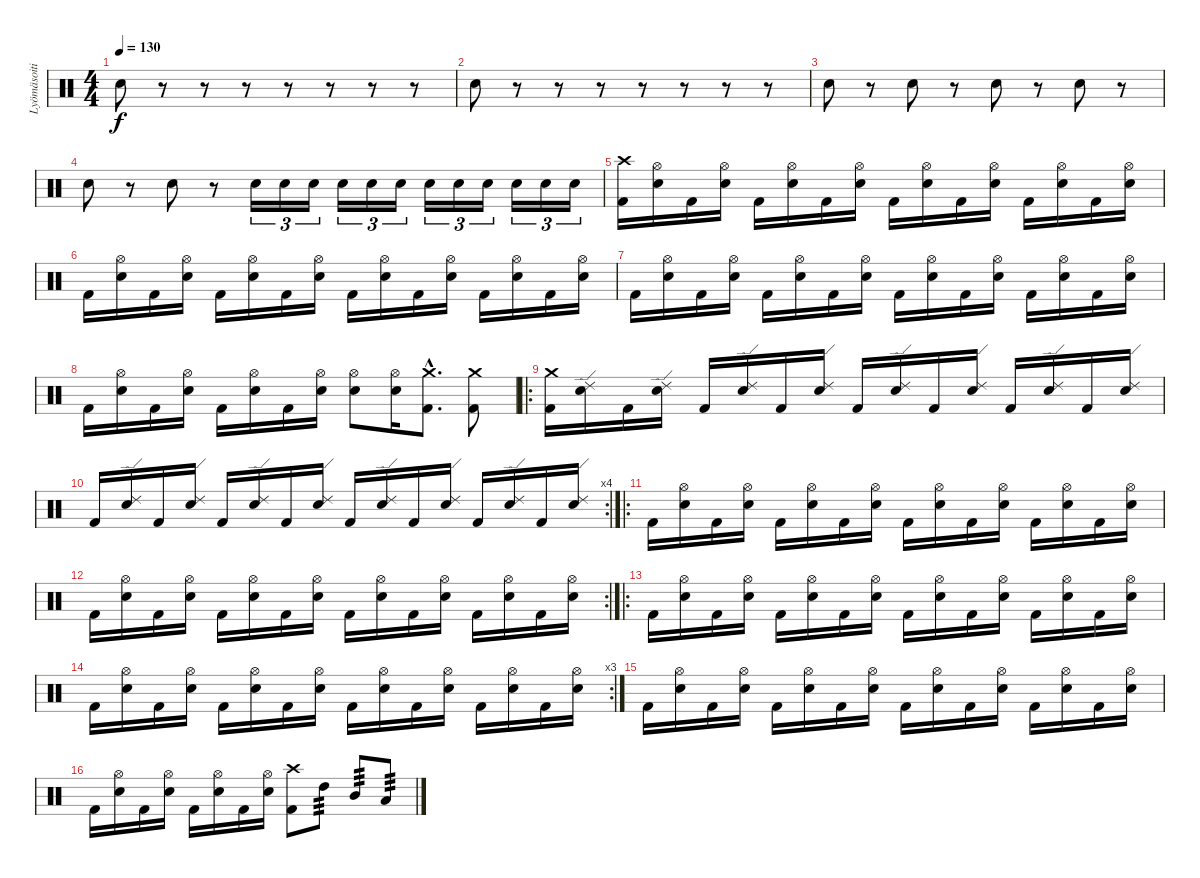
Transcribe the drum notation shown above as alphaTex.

\track ("Lyömäsoitin" "Lyömäsoiti") {instrument percussion}
\staff {score}
\articulation defaults
\ts (4 4)
\tempo 130
\clef neutral
\ks c "Snare (hit) 2".8{dy f}
r.8 r.8 r.8 r.8 r.8 r.8 r.8 |
"Snare (hit) 2".8 r.8 r.8 r.8 r.8 r.8 r.8 r.8 |
"Snare (hit) 2".8 r.8 "Snare (hit) 2".8 r.8 "Snare (hit) 2".8 r.8 "Snare (hit) 2".8 r.8 |
"Snare (hit) 2".8 r.8 "Snare (hit) 2".8 r.8 "Snare (hit) 2".16{tu (3 2)} "Snare (hit) 2".16{tu (3 2)} "Snare (hit) 2".16{tu (3 2)} "Snare (hit) 2".16{tu (3 2)} "Snare (hit) 2".16{tu (3 2)} "Snare (hit) 2".16{tu (3 2)} "Snare (hit) 2".16{tu (3 2)} "Snare (hit) 2".16{tu (3 2)} "Snare (hit) 2".16{tu (3 2)} "Snare (hit) 2".16{tu (3 2)} "Snare (hit) 2".16{tu (3 2)} "Snare (hit) 2".16{tu (3 2)} |
("Crash high (hit)" "Kick (hit) 2").16 ("Hi-Hat (open)" "Snare (hit) 2").16 "Kick (hit) 2".16 ("Hi-Hat (open)" "Snare (hit) 2").16 "Kick (hit) 2".16 ("Hi-Hat (open)" "Snare (hit) 2").16 "Kick (hit) 2".16 ("Hi-Hat (open)" "Snare (hit) 2").16 "Kick (hit) 2".16 ("Hi-Hat (open)" "Snare (hit) 2").16 "Kick (hit) 2".16 ("Hi-Hat (open)" "Snare (hit) 2").16 "Kick (hit) 2".16 ("Hi-Hat (open)" "Snare (hit) 2").16 "Kick (hit) 2".16 ("Hi-Hat (open)" "Snare (hit) 2").16 |
"Kick (hit) 2".16 ("Hi-Hat (open)" "Snare (hit) 2").16 "Kick (hit) 2".16 ("Hi-Hat (open)" "Snare (hit) 2").16 "Kick (hit) 2".16 ("Hi-Hat (open)" "Snare (hit) 2").16 "Kick (hit) 2".16 ("Hi-Hat (open)" "Snare (hit) 2").16 "Kick (hit) 2".16 ("Hi-Hat (open)" "Snare (hit) 2").16 "Kick (hit) 2".16 ("Hi-Hat (open)" "Snare (hit) 2").16 "Kick (hit) 2".16 ("Hi-Hat (open)" "Snare (hit) 2").16 "Kick (hit) 2".16 ("Hi-Hat (open)" "Snare (hit) 2").16 |
"Kick (hit) 2".16 ("Hi-Hat (open)" "Snare (hit) 2").16 "Kick (hit) 2".16 ("Hi-Hat (open)" "Snare (hit) 2").16 "Kick (hit) 2".16 ("Hi-Hat (open)" "Snare (hit) 2").16 "Kick (hit) 2".16 ("Hi-Hat (open)" "Snare (hit) 2").16 "Kick (hit) 2".16 ("Hi-Hat (open)" "Snare (hit) 2").16 "Kick (hit) 2".16 ("Hi-Hat (open)" "Snare (hit) 2").16 "Kick (hit) 2".16 ("Hi-Hat (open)" "Snare (hit) 2").16 "Kick (hit) 2".16 ("Hi-Hat (open)" "Snare (hit) 2").16 |
"Kick (hit) 2".16 ("Hi-Hat (open)" "Snare (hit) 2").16 "Kick (hit) 2".16 ("Hi-Hat (open)" "Snare (hit) 2").16 "Kick (hit) 2".16 ("Hi-Hat (open)" "Snare (hit) 2").16 "Kick (hit) 2".16 ("Hi-Hat (open)" "Snare (hit) 2").16 ("Hi-Hat (open)" "Snare (hit) 2").8 ("Hi-Hat (open)" "Snare (hit) 2").16 ("Crash medium (hit)"{hac} "Kick (hit) 2"{hac}).8{d} ("Crash medium (hit)" "Kick (hit) 2").8 |
\ro
("Crash medium (hit)" "Kick (hit) 2").16 ("Ride (edge) 2" "Snare (hit) 2").16 "Kick (hit) 2".16 ("Ride (edge) 2" "Snare (hit) 2").16 "Kick (hit) 2".16 ("Ride (edge) 2" "Snare (hit) 2").16 "Kick (hit) 2".16 ("Ride (edge) 2" "Snare (hit) 2").16 "Kick (hit) 2".16 ("Ride (edge) 2" "Snare (hit) 2").16 "Kick (hit) 2".16 ("Ride (edge) 2" "Snare (hit) 2").16 "Kick (hit) 2".16 ("Ride (edge) 2" "Snare (hit) 2").16 "Kick (hit) 2".16 ("Ride (edge) 2" "Snare (hit) 2").16 |
\rc 4 "Kick (hit) 2".16
("Ride (edge) 2" "Snare (hit) 2").16 "Kick (hit) 2".16 ("Ride (edge) 2" "Snare (hit) 2").16 "Kick (hit) 2".16 ("Ride (edge) 2" "Snare (hit) 2").16 "Kick (hit) 2".16 ("Ride (edge) 2" "Snare (hit) 2").16 "Kick (hit) 2".16 ("Ride (edge) 2" "Snare (hit) 2").16 "Kick (hit) 2".16 ("Ride (edge) 2" "Snare (hit) 2").16 "Kick (hit) 2".16 ("Ride (edge) 2" "Snare (hit) 2").16 "Kick (hit) 2".16 ("Ride (edge) 2" "Snare (hit) 2").16 |
\ro "Kick (hit) 2".16
("Hi-Hat (open)" "Snare (hit) 2").16 "Kick (hit) 2".16 ("Hi-Hat (open)" "Snare (hit) 2").16 "Kick (hit) 2".16 ("Hi-Hat (open)" "Snare (hit) 2").16 "Kick (hit) 2".16 ("Hi-Hat (open)" "Snare (hit) 2").16 "Kick (hit) 2".16 ("Hi-Hat (open)" "Snare (hit) 2").16 "Kick (hit) 2".16 ("Hi-Hat (open)" "Snare (hit) 2").16 "Kick (hit) 2".16 ("Hi-Hat (open)" "Snare (hit) 2").16 "Kick (hit) 2".16 ("Hi-Hat (open)" "Snare (hit) 2").16 |
\rc 2 "Kick (hit) 2".16
("Hi-Hat (open)" "Snare (hit) 2").16 "Kick (hit) 2".16 ("Hi-Hat (open)" "Snare (hit) 2").16 "Kick (hit) 2".16 ("Hi-Hat (open)" "Snare (hit) 2").16 "Kick (hit) 2".16 ("Hi-Hat (open)" "Snare (hit) 2").16 "Kick (hit) 2".16 ("Hi-Hat (open)" "Snare (hit) 2").16 "Kick (hit) 2".16 ("Hi-Hat (open)" "Snare (hit) 2").16 "Kick (hit) 2".16 ("Hi-Hat (open)" "Snare (hit) 2").16 "Kick (hit) 2".16 ("Hi-Hat (open)" "Snare (hit) 2").16 |
\ro "Kick (hit) 2".16
("Hi-Hat (open)" "Snare (hit) 2").16 "Kick (hit) 2".16 ("Hi-Hat (open)" "Snare (hit) 2").16 "Kick (hit) 2".16 ("Hi-Hat (open)" "Snare (hit) 2").16 "Kick (hit) 2".16 ("Hi-Hat (open)" "Snare (hit) 2").16 "Kick (hit) 2".16 ("Hi-Hat (open)" "Snare (hit) 2").16 "Kick (hit) 2".16 ("Hi-Hat (open)" "Snare (hit) 2").16 "Kick (hit) 2".16 ("Hi-Hat (open)" "Snare (hit) 2").16 "Kick (hit) 2".16 ("Hi-Hat (open)" "Snare (hit) 2").16 |
\rc 3 "Kick (hit) 2".16
("Hi-Hat (open)" "Snare (hit) 2").16 "Kick (hit) 2".16 ("Hi-Hat (open)" "Snare (hit) 2").16 "Kick (hit) 2".16 ("Hi-Hat (open)" "Snare (hit) 2").16 "Kick (hit) 2".16 ("Hi-Hat (open)" "Snare (hit) 2").16 "Kick (hit) 2".16 ("Hi-Hat (open)" "Snare (hit) 2").16 "Kick (hit) 2".16 ("Hi-Hat (open)" "Snare (hit) 2").16 "Kick (hit) 2".16 ("Hi-Hat (open)" "Snare (hit) 2").16 "Kick (hit) 2".16 ("Hi-Hat (open)" "Snare (hit) 2").16 |
"Kick (hit) 2".16 ("Hi-Hat (open)" "Snare (hit) 2").16 "Kick (hit) 2".16 ("Hi-Hat (open)" "Snare (hit) 2").16 "Kick (hit) 2".16 ("Hi-Hat (open)" "Snare (hit) 2").16 "Kick (hit) 2".16 ("Hi-Hat (open)" "Snare (hit) 2").16 "Kick (hit) 2".16 ("Hi-Hat (open)" "Snare (hit) 2").16 "Kick (hit) 2".16 ("Hi-Hat (open)" "Snare (hit) 2").16 "Kick (hit) 2".16 ("Hi-Hat (open)" "Snare (hit) 2").16 "Kick (hit) 2".16 ("Hi-Hat (open)" "Snare (hit) 2").16 |
"Kick (hit) 2".16 ("Hi-Hat (open)" "Snare (hit) 2").16 "Kick (hit) 2".16 ("Hi-Hat (open)" "Snare (hit) 2").16 "Kick (hit) 2".16 ("Hi-Hat (open)" "Snare (hit) 2").16 "Kick (hit) 2".16 ("Hi-Hat (open)" "Snare (hit) 2").16 ("Crash high (hit)" "Kick (hit) 2").8 "High Tom (hit)".8{tp 3} "Mid Tom (hit)".8{tp 3} "Low Tom (hit)".8{tp 3}
